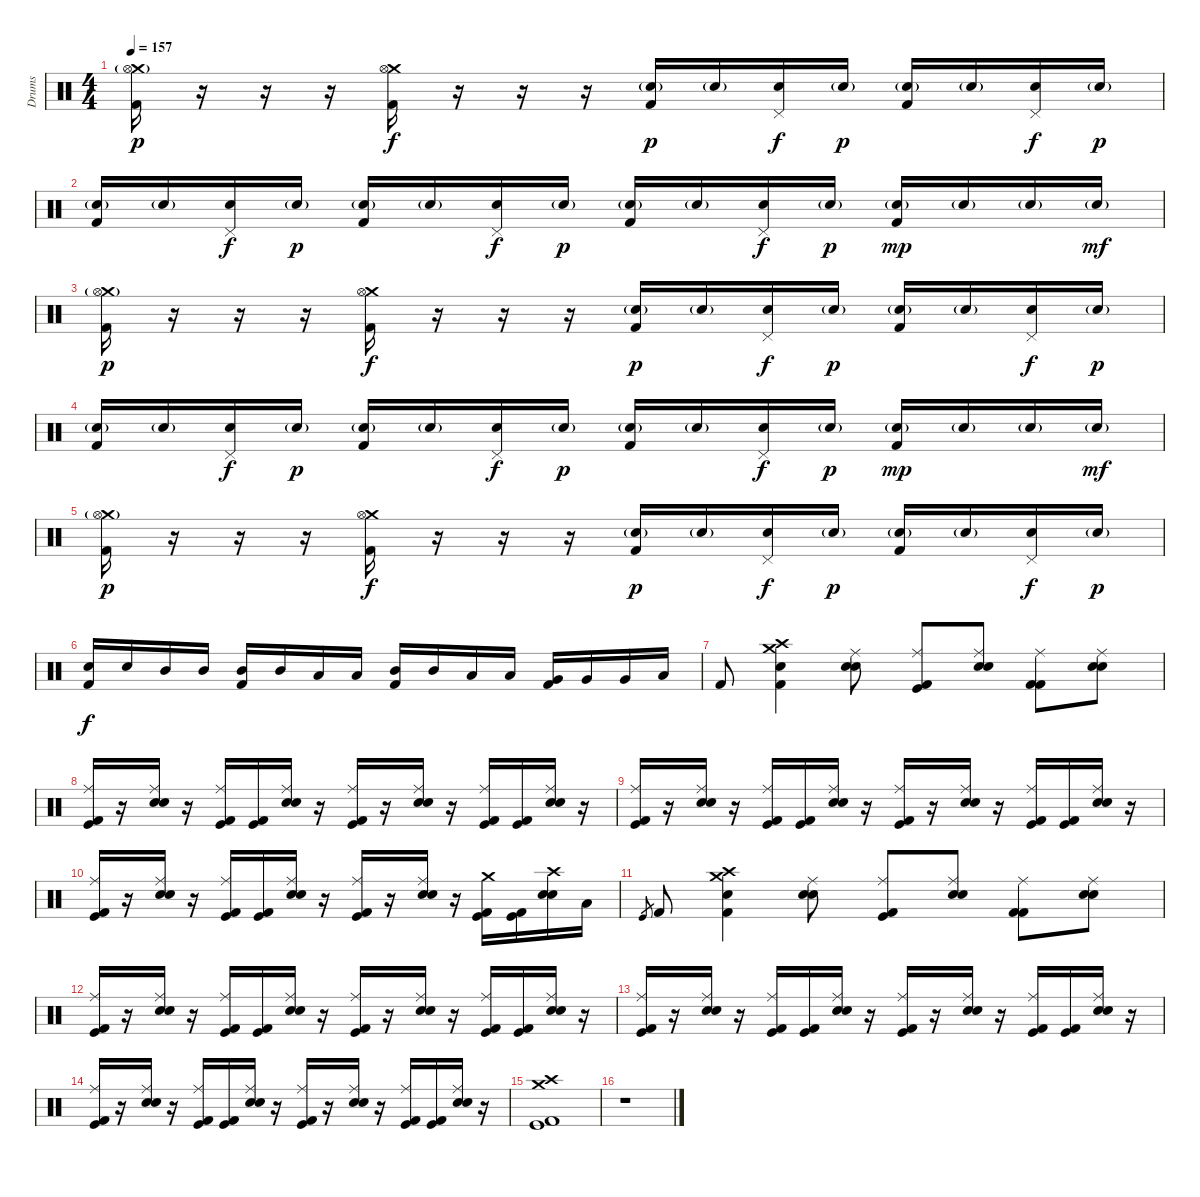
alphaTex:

\track ("Drums" "Drums") {instrument percussion}
\staff {score}
\articulation defaults
\ts (4 4)
\tempo 157
\clef neutral
\ks c
("Crash medium (hit)" "Hi-Hat (open)"{g} "Kick (hit) 2").16{dy p} r.16 r.16 r.16 ("Crash medium (hit)" "Hi-Hat (open)" "Kick (hit) 2").16{dy f} r.16 r.16 r.16 ("Electric Snare (hit)"{g} "Kick (hit) 2").16{dy p} "Electric Snare (hit)"{g}.16 ("Pedal Hi-Hat (hit)" "Electric Snare (hit)").16{dy f} "Electric Snare (hit)"{g}.16{dy p} ("Electric Snare (hit)"{g} "Kick (hit) 2").16 "Electric Snare (hit)"{g}.16 ("Pedal Hi-Hat (hit)" "Electric Snare (hit)").16{dy f} "Electric Snare (hit)"{g}.16{dy p} |
("Electric Snare (hit)"{g} "Kick (hit) 2").16 "Electric Snare (hit)"{g}.16 ("Pedal Hi-Hat (hit)" "Electric Snare (hit)").16{dy f} "Electric Snare (hit)"{g}.16{dy p} ("Electric Snare (hit)"{g} "Kick (hit) 2").16 "Electric Snare (hit)"{g}.16 ("Pedal Hi-Hat (hit)" "Electric Snare (hit)").16{dy f} "Electric Snare (hit)"{g}.16{dy p} ("Electric Snare (hit)"{g} "Kick (hit) 2").16 "Electric Snare (hit)"{g}.16 ("Pedal Hi-Hat (hit)" "Electric Snare (hit)").16{dy f} "Electric Snare (hit)"{g}.16{dy p} ("Electric Snare (hit)"{g} "Kick (hit) 2").16{dy mp} "Electric Snare (hit)"{g}.16 "Electric Snare (hit)"{g}.16 "Electric Snare (hit)"{g}.16{dy mf} |
("Crash medium (hit)" "Hi-Hat (open)"{g} "Kick (hit) 2").16{dy p} r.16 r.16 r.16 ("Crash medium (hit)" "Hi-Hat (open)" "Kick (hit) 2").16{dy f} r.16 r.16 r.16 ("Electric Snare (hit)"{g} "Kick (hit) 2").16{dy p} "Electric Snare (hit)"{g}.16 ("Pedal Hi-Hat (hit)" "Electric Snare (hit)").16{dy f} "Electric Snare (hit)"{g}.16{dy p} ("Electric Snare (hit)"{g} "Kick (hit) 2").16 "Electric Snare (hit)"{g}.16 ("Pedal Hi-Hat (hit)" "Electric Snare (hit)").16{dy f} "Electric Snare (hit)"{g}.16{dy p} |
("Electric Snare (hit)"{g} "Kick (hit) 2").16 "Electric Snare (hit)"{g}.16 ("Pedal Hi-Hat (hit)" "Electric Snare (hit)").16{dy f} "Electric Snare (hit)"{g}.16{dy p} ("Electric Snare (hit)"{g} "Kick (hit) 2").16 "Electric Snare (hit)"{g}.16 ("Pedal Hi-Hat (hit)" "Electric Snare (hit)").16{dy f} "Electric Snare (hit)"{g}.16{dy p} ("Electric Snare (hit)"{g} "Kick (hit) 2").16 "Electric Snare (hit)"{g}.16 ("Pedal Hi-Hat (hit)" "Electric Snare (hit)").16{dy f} "Electric Snare (hit)"{g}.16{dy p} ("Electric Snare (hit)"{g} "Kick (hit) 2").16{dy mp} "Electric Snare (hit)"{g}.16 "Electric Snare (hit)"{g}.16 "Electric Snare (hit)"{g}.16{dy mf} |
("Crash medium (hit)" "Hi-Hat (open)"{g} "Kick (hit) 2").16{dy p} r.16 r.16 r.16 ("Crash medium (hit)" "Hi-Hat (open)" "Kick (hit) 2").16{dy f} r.16 r.16 r.16 ("Electric Snare (hit)"{g} "Kick (hit) 2").16{dy p} "Electric Snare (hit)"{g}.16 ("Pedal Hi-Hat (hit)" "Electric Snare (hit)").16{dy f} "Electric Snare (hit)"{g}.16{dy p} ("Electric Snare (hit)"{g} "Kick (hit) 2").16 "Electric Snare (hit)"{g}.16 ("Pedal Hi-Hat (hit)" "Electric Snare (hit)").16{dy f} "Electric Snare (hit)"{g}.16{dy p} |
("Electric Snare (hit)" "Kick (hit) 2").16{dy f} "Electric Snare (hit)".16 "Mid Tom (hit)".16 "Mid Tom (hit)".16 ("Mid Tom (hit)" "Kick (hit) 2").16 "Mid Tom (hit)".16 "Low Tom (hit)".16 "Low Tom (hit)".16 ("Mid Tom (hit)" "Kick (hit) 2").16 "Mid Tom (hit)".16 "Low Tom (hit)".16 "Low Tom (hit)".16 ("Very Low Tom (hit)" "Kick (hit) 2").16 "Very Low Tom (hit)".16 "Very Low Tom (hit)".16 "Low Floor Tom (hit)".16 |
"Kick (hit) 2".8 ("Crash high (hit)" "Crash medium (hit)" "Electric Snare (hit)" "Kick (hit) 2").4 ("Ride (middle)" "Snare (hit) 2" "Electric Snare (hit)").8 ("Ride (middle)" "Kick (hit) 2" "Kick (hit)").8 ("Ride (middle)" "Snare (hit) 2" "Electric Snare (hit)").8 ("Ride (middle)" "Kick (hit) 2" "Kick (hit) 2").8 ("Ride (middle)" "Snare (hit) 2" "Electric Snare (hit)").8 |
("Ride (middle)" "Kick (hit) 2" "Kick (hit)").16 r.16 ("Ride (middle)" "Electric Snare (hit)" "Snare (hit) 2").16 r.16 ("Ride (middle)" "Kick (hit) 2" "Kick (hit)").16 ("Kick (hit) 2" "Kick (hit)").16 ("Ride (middle)" "Electric Snare (hit)" "Snare (hit) 2").16 r.16 ("Ride (middle)" "Kick (hit) 2" "Kick (hit)").16 r.16 ("Ride (middle)" "Electric Snare (hit)" "Snare (hit) 2").16 r.16 ("Ride (middle)" "Kick (hit) 2" "Kick (hit)").16 ("Kick (hit) 2" "Kick (hit)").16 ("Ride (middle)" "Electric Snare (hit)" "Snare (hit) 2").16 r.16 |
("Ride (middle)" "Kick (hit) 2" "Kick (hit)").16 r.16 ("Ride (middle)" "Electric Snare (hit)" "Snare (hit) 2").16 r.16 ("Ride (middle)" "Kick (hit) 2" "Kick (hit)").16 ("Kick (hit) 2" "Kick (hit)").16 ("Ride (middle)" "Electric Snare (hit)" "Snare (hit) 2").16 r.16 ("Ride (middle)" "Kick (hit) 2" "Kick (hit)").16 r.16 ("Ride (middle)" "Electric Snare (hit)" "Snare (hit) 2").16 r.16 ("Ride (middle)" "Kick (hit) 2" "Kick (hit)").16 ("Kick (hit) 2" "Kick (hit)").16 ("Ride (middle)" "Electric Snare (hit)" "Snare (hit) 2").16 r.16 |
("Ride (middle)" "Kick (hit) 2" "Kick (hit)").16 r.16 ("Ride (middle)" "Electric Snare (hit)" "Snare (hit) 2").16 r.16 ("Ride (middle)" "Kick (hit) 2" "Kick (hit)").16 ("Kick (hit) 2" "Kick (hit)").16 ("Ride (middle)" "Electric Snare (hit)" "Snare (hit) 2").16 r.16 ("Ride (middle)" "Kick (hit) 2" "Kick (hit)").16 r.16 ("Ride (middle)" "Electric Snare (hit)" "Snare (hit) 2").16 r.16 ("Crash medium (hit)" "Kick (hit) 2" "Kick (hit)").16 ("Kick (hit) 2" "Kick (hit)").16 ("Crash high (hit)" "Electric Snare (hit)" "Snare (hit) 2").16 "Low Tom (hit)".16 |
"Kick (hit)".8{gr} "Kick (hit) 2".8 ("Crash high (hit)" "Crash medium (hit)" "Electric Snare (hit)" "Kick (hit) 2").4 ("Ride (middle)" "Snare (hit) 2" "Electric Snare (hit)").8 ("Ride (middle)" "Kick (hit) 2" "Kick (hit)").8 ("Ride (middle)" "Snare (hit) 2" "Electric Snare (hit)").8 ("Ride (middle)" "Kick (hit) 2" "Kick (hit) 2").8 ("Ride (middle)" "Snare (hit) 2" "Electric Snare (hit)").8 |
("Ride (middle)" "Kick (hit) 2" "Kick (hit)").16 r.16 ("Ride (middle)" "Electric Snare (hit)" "Snare (hit) 2").16 r.16 ("Ride (middle)" "Kick (hit) 2" "Kick (hit)").16 ("Kick (hit) 2" "Kick (hit)").16 ("Ride (middle)" "Electric Snare (hit)" "Snare (hit) 2").16 r.16 ("Ride (middle)" "Kick (hit) 2" "Kick (hit)").16 r.16 ("Ride (middle)" "Electric Snare (hit)" "Snare (hit) 2").16 r.16 ("Ride (middle)" "Kick (hit) 2" "Kick (hit)").16 ("Kick (hit) 2" "Kick (hit)").16 ("Ride (middle)" "Electric Snare (hit)" "Snare (hit) 2").16 r.16 |
("Ride (middle)" "Kick (hit) 2" "Kick (hit)").16 r.16 ("Ride (middle)" "Electric Snare (hit)" "Snare (hit) 2").16 r.16 ("Ride (middle)" "Kick (hit) 2" "Kick (hit)").16 ("Kick (hit) 2" "Kick (hit)").16 ("Ride (middle)" "Electric Snare (hit)" "Snare (hit) 2").16 r.16 ("Ride (middle)" "Kick (hit) 2" "Kick (hit)").16 r.16 ("Ride (middle)" "Electric Snare (hit)" "Snare (hit) 2").16 r.16 ("Ride (middle)" "Kick (hit) 2" "Kick (hit)").16 ("Kick (hit) 2" "Kick (hit)").16 ("Ride (middle)" "Electric Snare (hit)" "Snare (hit) 2").16 r.16 |
("Ride (middle)" "Kick (hit) 2" "Kick (hit)").16 r.16 ("Ride (middle)" "Electric Snare (hit)" "Snare (hit) 2").16 r.16 ("Ride (middle)" "Kick (hit) 2" "Kick (hit)").16 ("Kick (hit) 2" "Kick (hit)").16 ("Ride (middle)" "Electric Snare (hit)" "Snare (hit) 2").16 r.16 ("Ride (middle)" "Kick (hit) 2" "Kick (hit)").16 r.16 ("Ride (middle)" "Electric Snare (hit)" "Snare (hit) 2").16 r.16 ("Ride (middle)" "Kick (hit) 2" "Kick (hit)").16 ("Kick (hit) 2" "Kick (hit)").16 ("Ride (middle)" "Electric Snare (hit)" "Snare (hit) 2").16 r.16 |
("Crash high (hit)" "Crash medium (hit)" "Kick (hit) 2" "Kick (hit)").1 |
r.1
